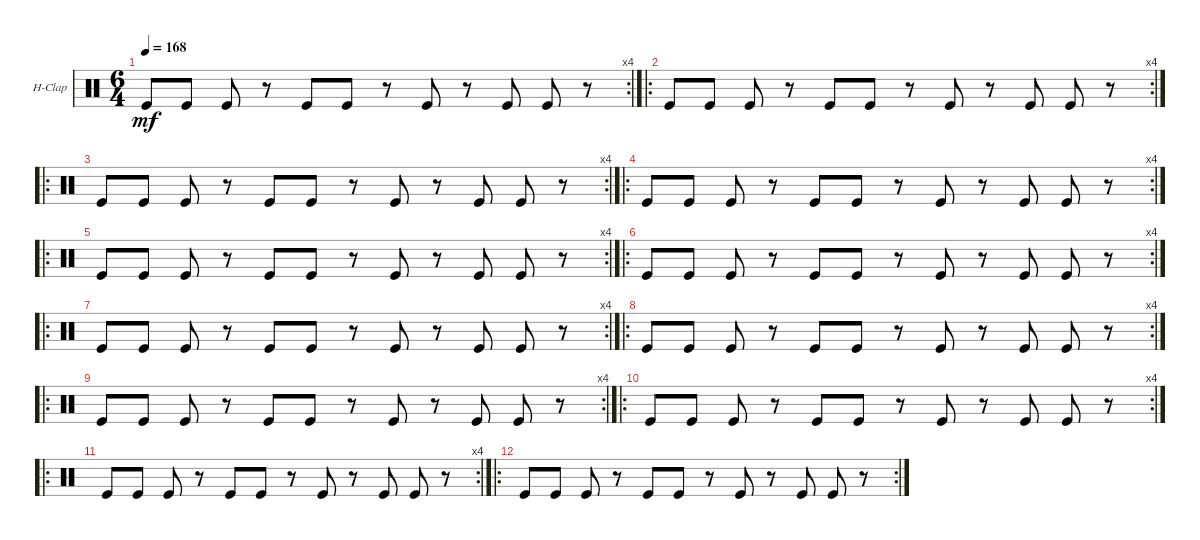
\defaultSystemsLayout 4
\bracketExtendMode groupsimilarinstruments
\firstSystemTrackNameOrientation horizontal
\otherSystemsTrackNameOrientation horizontal
\track ("Hand Clap" "H-Clap") {instrument percussion}
\staff {score}
\articulation defaults
\rc 4
\ts (6 4)
\tempo 168
\clef neutral
\ks c "Kick (hit)".8{dy mf} "Kick (hit)".8 "Kick (hit)".8
r.8 "Kick (hit)".8 "Kick (hit)".8 r.8 "Kick (hit)".8 r.8 "Kick (hit)".8 "Kick (hit)".8 r.8 |
\ro
\rc 4 "Kick (hit)".8 "Kick (hit)".8 "Kick (hit)".8
r.8 "Kick (hit)".8 "Kick (hit)".8 r.8 "Kick (hit)".8 r.8 "Kick (hit)".8 "Kick (hit)".8 r.8 |
\ro
\rc 4 "Kick (hit)".8 "Kick (hit)".8 "Kick (hit)".8
r.8 "Kick (hit)".8 "Kick (hit)".8 r.8 "Kick (hit)".8 r.8 "Kick (hit)".8 "Kick (hit)".8 r.8 |
\ro
\rc 4 "Kick (hit)".8 "Kick (hit)".8 "Kick (hit)".8
r.8 "Kick (hit)".8 "Kick (hit)".8 r.8 "Kick (hit)".8 r.8 "Kick (hit)".8 "Kick (hit)".8 r.8 |
\ro
\rc 4 "Kick (hit)".8 "Kick (hit)".8 "Kick (hit)".8
r.8 "Kick (hit)".8 "Kick (hit)".8 r.8 "Kick (hit)".8 r.8 "Kick (hit)".8 "Kick (hit)".8 r.8 |
\ro
\rc 4 "Kick (hit)".8 "Kick (hit)".8 "Kick (hit)".8
r.8 "Kick (hit)".8 "Kick (hit)".8 r.8 "Kick (hit)".8 r.8 "Kick (hit)".8 "Kick (hit)".8 r.8 |
\ro
\rc 4 "Kick (hit)".8 "Kick (hit)".8 "Kick (hit)".8
r.8 "Kick (hit)".8 "Kick (hit)".8 r.8 "Kick (hit)".8 r.8 "Kick (hit)".8 "Kick (hit)".8 r.8 |
\ro
\rc 4 "Kick (hit)".8 "Kick (hit)".8 "Kick (hit)".8
r.8 "Kick (hit)".8 "Kick (hit)".8 r.8 "Kick (hit)".8 r.8 "Kick (hit)".8 "Kick (hit)".8 r.8 |
\ro
\rc 4 "Kick (hit)".8 "Kick (hit)".8 "Kick (hit)".8
r.8 "Kick (hit)".8 "Kick (hit)".8 r.8 "Kick (hit)".8 r.8 "Kick (hit)".8 "Kick (hit)".8 r.8 |
\ro
\rc 4 "Kick (hit)".8 "Kick (hit)".8 "Kick (hit)".8
r.8 "Kick (hit)".8 "Kick (hit)".8 r.8 "Kick (hit)".8 r.8 "Kick (hit)".8 "Kick (hit)".8 r.8 |
\ro
\rc 4 "Kick (hit)".8 "Kick (hit)".8 "Kick (hit)".8
r.8 "Kick (hit)".8 "Kick (hit)".8 r.8 "Kick (hit)".8 r.8 "Kick (hit)".8 "Kick (hit)".8 r.8 |
\ro
\rc 2 "Kick (hit)".8 "Kick (hit)".8 "Kick (hit)".8
r.8 "Kick (hit)".8 "Kick (hit)".8 r.8 "Kick (hit)".8 r.8 "Kick (hit)".8 "Kick (hit)".8 r.8
